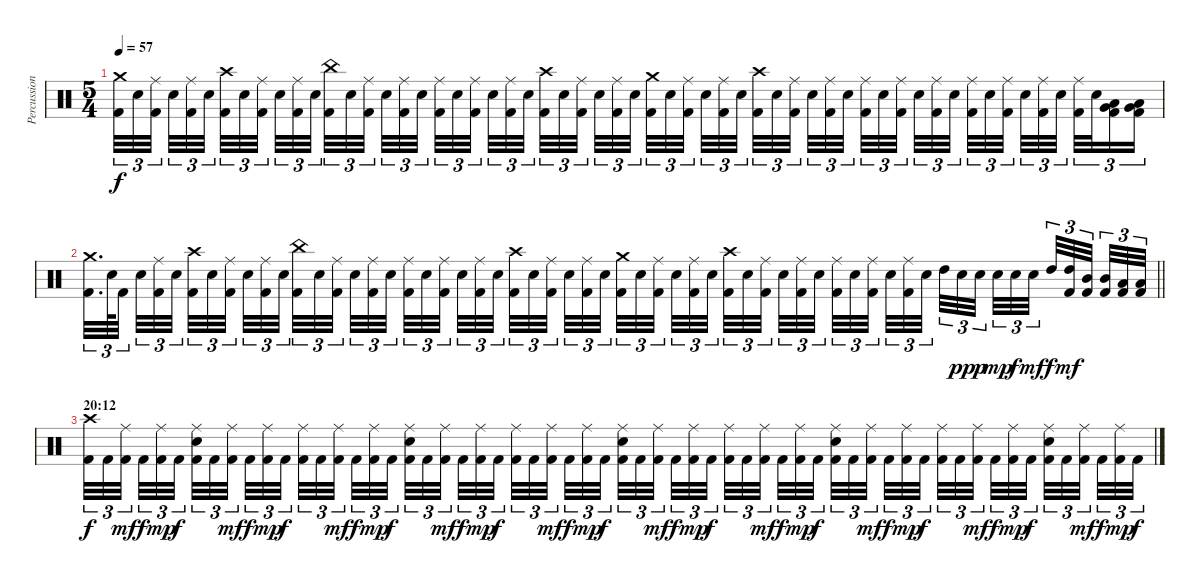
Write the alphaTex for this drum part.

\track ("Percussions" "Percussion") {instrument percussion}
\staff {score}
\articulation defaults
\ts (5 4)
\tempo 57
\clef neutral
\ks c
("Crash medium (hit)" "Kick (hit) 2").32{tu (3 2) dy f} "Snare (hit) 2".32{tu (3 2)} ("Ride (middle)" "Kick (hit) 2").32{tu (3 2) beam splitsecondary} "Snare (hit) 2".32{tu (3 2)} ("Ride (middle)" "Kick (hit) 2").32{tu (3 2)} "Snare (hit) 2".32{tu (3 2) beam splitsecondary} ("Crash high (hit)" "Kick (hit) 2").32{tu (3 2)} "Snare (hit) 2".32{tu (3 2)} ("Ride (middle)" "Kick (hit) 2").32{tu (3 2) beam splitsecondary} "Snare (hit) 2".32{tu (3 2)} ("Ride (middle)" "Kick (hit) 2").32{tu (3 2)} "Snare (hit) 2".32{tu (3 2)} ("China (hit)" "Kick (hit) 2").32{tu (3 2)} "Snare (hit) 2".32{tu (3 2)} ("Ride (middle)" "Kick (hit) 2").32{tu (3 2) beam splitsecondary} "Snare (hit) 2".32{tu (3 2)} ("Ride (middle)" "Kick (hit) 2").32{tu (3 2)} "Snare (hit) 2".32{tu (3 2) beam splitsecondary} ("Ride (middle)" "Kick (hit) 2").32{tu (3 2)} "Snare (hit) 2".32{tu (3 2)} ("Ride (middle)" "Kick (hit) 2").32{tu (3 2) beam splitsecondary} "Snare (hit) 2".32{tu (3 2)} ("Ride (middle)" "Kick (hit) 2").32{tu (3 2)} "Snare (hit) 2".32{tu (3 2)} ("Crash high (hit)" "Kick (hit) 2").32{tu (3 2)} "Snare (hit) 2".32{tu (3 2)} ("Ride (middle)" "Kick (hit) 2").32{tu (3 2) beam splitsecondary} "Snare (hit) 2".32{tu (3 2)} ("Ride (middle)" "Kick (hit) 2").32{tu (3 2)} "Snare (hit) 2".32{tu (3 2) beam splitsecondary} ("Crash medium (hit)" "Kick (hit) 2").32{tu (3 2)} "Snare (hit) 2".32{tu (3 2)} ("Ride (middle)" "Kick (hit) 2").32{tu (3 2) beam splitsecondary} "Snare (hit) 2".32{tu (3 2)} ("Ride (middle)" "Kick (hit) 2").32{tu (3 2)} "Snare (hit) 2".32{tu (3 2)} ("Crash high (hit)" "Kick (hit) 2").32{tu (3 2)} "Snare (hit) 2".32{tu (3 2)} ("Ride (middle)" "Kick (hit) 2").32{tu (3 2) beam splitsecondary} "Snare (hit) 2".32{tu (3 2)} ("Ride (middle)" "Kick (hit) 2").32{tu (3 2)} "Snare (hit) 2".32{tu (3 2) beam splitsecondary} ("Ride (middle)" "Kick (hit) 2").32{tu (3 2)} "Snare (hit) 2".32{tu (3 2)} ("Ride (middle)" "Kick (hit) 2").32{tu (3 2) beam splitsecondary} "Snare (hit) 2".32{tu (3 2)} ("Ride (middle)" "Kick (hit) 2").32{tu (3 2)} "Snare (hit) 2".32{tu (3 2)} ("Ride (middle)" "Kick (hit) 2").32{tu (3 2)} "Snare (hit) 2".32{tu (3 2)} ("Ride (middle)" "Kick (hit) 2").32{tu (3 2) beam splitsecondary} "Snare (hit) 2".32{tu (3 2)} ("Ride (middle)" "Kick (hit) 2").32{tu (3 2)} "Snare (hit) 2".32{tu (3 2) beam splitsecondary} ("Ride (middle)" "Kick (hit) 2").32{tu (3 2)} "Snare (hit) 2".32{tu (3 2)} ("Very Low Tom (hit)" "Low Floor Tom (hit)" "Kick (hit) 2").16{tu (3 2)} ("Very Low Tom (hit)" "Low Floor Tom (hit)" "Kick (hit) 2").16{tu (3 2)} |
\barLineRight lightlight
("Crash medium (hit)" "Kick (hit) 2").32{d tu (3 2)} "Snare (hit) 2".64{tu (3 2)} "Kick (hit) 2".32{tu (3 2) beam splitsecondary} "Snare (hit) 2".32{tu (3 2)} ("Ride (middle)" "Kick (hit) 2").32{tu (3 2)} "Snare (hit) 2".32{tu (3 2) beam splitsecondary} ("Crash high (hit)" "Kick (hit) 2").32{tu (3 2)} "Snare (hit) 2".32{tu (3 2)} ("Ride (middle)" "Kick (hit) 2").32{tu (3 2) beam splitsecondary} "Snare (hit) 2".32{tu (3 2)} ("Ride (middle)" "Kick (hit) 2").32{tu (3 2)} "Snare (hit) 2".32{tu (3 2)} ("China (hit)" "Kick (hit) 2").32{tu (3 2)} "Snare (hit) 2".32{tu (3 2)} ("Ride (middle)" "Kick (hit) 2").32{tu (3 2) beam splitsecondary} "Snare (hit) 2".32{tu (3 2)} ("Ride (middle)" "Kick (hit) 2").32{tu (3 2)} "Snare (hit) 2".32{tu (3 2) beam splitsecondary} ("Ride (middle)" "Kick (hit) 2").32{tu (3 2)} "Snare (hit) 2".32{tu (3 2)} ("Ride (middle)" "Kick (hit) 2").32{tu (3 2) beam splitsecondary} "Snare (hit) 2".32{tu (3 2)} ("Ride (middle)" "Kick (hit) 2").32{tu (3 2)} "Snare (hit) 2".32{tu (3 2)} ("Crash high (hit)" "Kick (hit) 2").32{tu (3 2)} "Snare (hit) 2".32{tu (3 2)} ("Ride (middle)" "Kick (hit) 2").32{tu (3 2) beam splitsecondary} "Snare (hit) 2".32{tu (3 2)} ("Ride (middle)" "Kick (hit) 2").32{tu (3 2)} "Snare (hit) 2".32{tu (3 2) beam splitsecondary} ("Crash medium (hit)" "Kick (hit) 2").32{tu (3 2)} "Snare (hit) 2".32{tu (3 2)} ("Ride (middle)" "Kick (hit) 2").32{tu (3 2) beam splitsecondary} "Snare (hit) 2".32{tu (3 2)} ("Ride (middle)" "Kick (hit) 2").32{tu (3 2)} "Snare (hit) 2".32{tu (3 2)} ("Crash high (hit)" "Kick (hit) 2").32{tu (3 2)} "Snare (hit) 2".32{tu (3 2)} ("Ride (middle)" "Kick (hit) 2").32{tu (3 2) beam splitsecondary} "Snare (hit) 2".32{tu (3 2)} ("Ride (middle)" "Kick (hit) 2").32{tu (3 2)} "Snare (hit) 2".32{tu (3 2) beam splitsecondary} ("Ride (middle)" "Kick (hit) 2").32{tu (3 2)} "Snare (hit) 2".32{tu (3 2)} ("Ride (middle)" "Kick (hit) 2").32{tu (3 2) beam splitsecondary} "Snare (hit) 2".32{tu (3 2)} ("Ride (middle)" "Kick (hit) 2").32{tu (3 2)} "Snare (hit) 2".32{tu (3 2)} "High Tom (hit)".32{tu (3 2)} "Snare (hit) 2".32{tu (3 2) dy pp} "Snare (hit) 2".32{tu (3 2) dy p beam splitsecondary} "Snare (hit) 2".32{tu (3 2) dy mp} "Snare (hit) 2".32{tu (3 2) dy f} "Snare (hit) 2".32{tu (3 2) dy mf beam splitsecondary} "High Tom (hit)".32{tu (3 2) dy f} ("High Tom (hit)" "Kick (hit) 2").32{tu (3 2) dy mf} ("Mid Tom (hit)" "Kick (hit) 2").32{tu (3 2) beam splitsecondary} ("Mid Tom (hit)" "Kick (hit) 2").32{tu (3 2)} ("Low Tom (hit)" "Kick (hit) 2").32{tu (3 2)} ("Low Tom (hit)" "Kick (hit) 2").32{tu (3 2)} |
\section ("" "20:12")
("Crash high (hit)" "Kick (hit) 2").32{tu (3 2) dy f} "Kick (hit) 2".32{tu (3 2)} ("Ride (middle)" "Kick (hit) 2").32{tu (3 2) dy mf beam splitsecondary} "Kick (hit) 2".32{tu (3 2) dy f} ("Ride (middle)" "Kick (hit) 2").32{tu (3 2) dy mp} "Kick (hit) 2".32{tu (3 2) dy f beam splitsecondary} ("Ride (middle)" "Snare (hit) 2" "Kick (hit) 2").32{tu (3 2)} "Kick (hit) 2".32{tu (3 2)} ("Ride (middle)" "Kick (hit) 2").32{tu (3 2) dy mf beam splitsecondary} "Kick (hit) 2".32{tu (3 2) dy f} ("Ride (middle)" "Kick (hit) 2").32{tu (3 2) dy mp} "Kick (hit) 2".32{tu (3 2) dy f} ("Ride (middle)" "Kick (hit) 2").32{tu (3 2)} "Kick (hit) 2".32{tu (3 2)} ("Ride (middle)" "Kick (hit) 2").32{tu (3 2) dy mf beam splitsecondary} "Kick (hit) 2".32{tu (3 2) dy f} ("Ride (middle)" "Kick (hit) 2").32{tu (3 2) dy mp} "Kick (hit) 2".32{tu (3 2) dy f beam splitsecondary} ("Ride (middle)" "Snare (hit) 2" "Kick (hit) 2").32{tu (3 2)} "Kick (hit) 2".32{tu (3 2)} ("Ride (middle)" "Kick (hit) 2").32{tu (3 2) dy mf beam splitsecondary} "Kick (hit) 2".32{tu (3 2) dy f} ("Ride (middle)" "Kick (hit) 2").32{tu (3 2) dy mp} "Kick (hit) 2".32{tu (3 2) dy f} ("Ride (middle)" "Kick (hit) 2").32{tu (3 2)} "Kick (hit) 2".32{tu (3 2)} ("Ride (middle)" "Kick (hit) 2").32{tu (3 2) dy mf beam splitsecondary} "Kick (hit) 2".32{tu (3 2) dy f} ("Ride (middle)" "Kick (hit) 2").32{tu (3 2) dy mp} "Kick (hit) 2".32{tu (3 2) dy f beam splitsecondary} ("Ride (middle)" "Snare (hit) 2" "Kick (hit) 2").32{tu (3 2)} "Kick (hit) 2".32{tu (3 2)} ("Ride (middle)" "Kick (hit) 2").32{tu (3 2) dy mf beam splitsecondary} "Kick (hit) 2".32{tu (3 2) dy f} ("Ride (middle)" "Kick (hit) 2").32{tu (3 2) dy mp} "Kick (hit) 2".32{tu (3 2) dy f} ("Ride (middle)" "Kick (hit) 2").32{tu (3 2)} "Kick (hit) 2".32{tu (3 2)} ("Ride (middle)" "Kick (hit) 2").32{tu (3 2) dy mf beam splitsecondary} "Kick (hit) 2".32{tu (3 2) dy f} ("Ride (middle)" "Kick (hit) 2").32{tu (3 2) dy mp} "Kick (hit) 2".32{tu (3 2) dy f beam splitsecondary} ("Ride (middle)" "Snare (hit) 2" "Kick (hit) 2").32{tu (3 2)} "Kick (hit) 2".32{tu (3 2)} ("Ride (middle)" "Kick (hit) 2").32{tu (3 2) dy mf beam splitsecondary} "Kick (hit) 2".32{tu (3 2) dy f} ("Ride (middle)" "Kick (hit) 2").32{tu (3 2) dy mp} "Kick (hit) 2".32{tu (3 2) dy f} ("Ride (middle)" "Kick (hit) 2").32{tu (3 2)} "Kick (hit) 2".32{tu (3 2)} ("Ride (middle)" "Kick (hit) 2").32{tu (3 2) dy mf beam splitsecondary} "Kick (hit) 2".32{tu (3 2) dy f} ("Ride (middle)" "Kick (hit) 2").32{tu (3 2) dy mp} "Kick (hit) 2".32{tu (3 2) dy f beam splitsecondary} ("Ride (middle)" "Snare (hit) 2" "Kick (hit) 2").32{tu (3 2)} "Kick (hit) 2".32{tu (3 2)} ("Ride (middle)" "Kick (hit) 2").32{tu (3 2) dy mf beam splitsecondary} "Kick (hit) 2".32{tu (3 2) dy f} ("Ride (middle)" "Kick (hit) 2").32{tu (3 2) dy mp} "Kick (hit) 2".32{tu (3 2) dy f}
